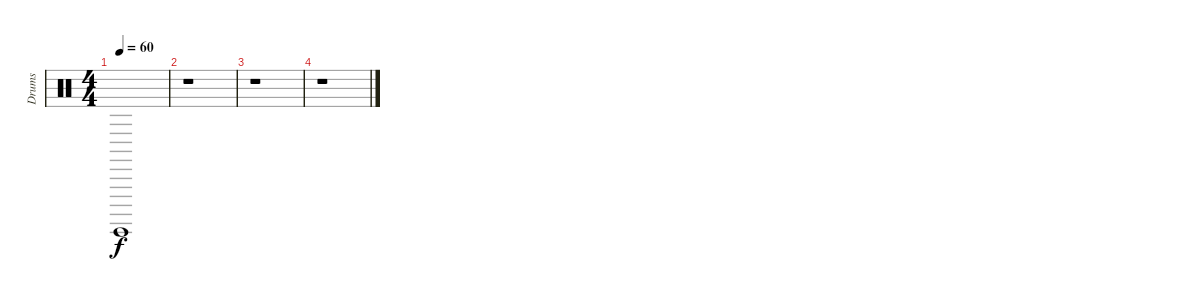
\track ("Drums" "Drums") {instrument percussion}
\staff {score}
\articulation defaults
\ts (4 4)
\tempo 60
\clef neutral
\ks c "Surdo (hit)".1{dy f}
|
r.1 |
r.1 |
r.1
